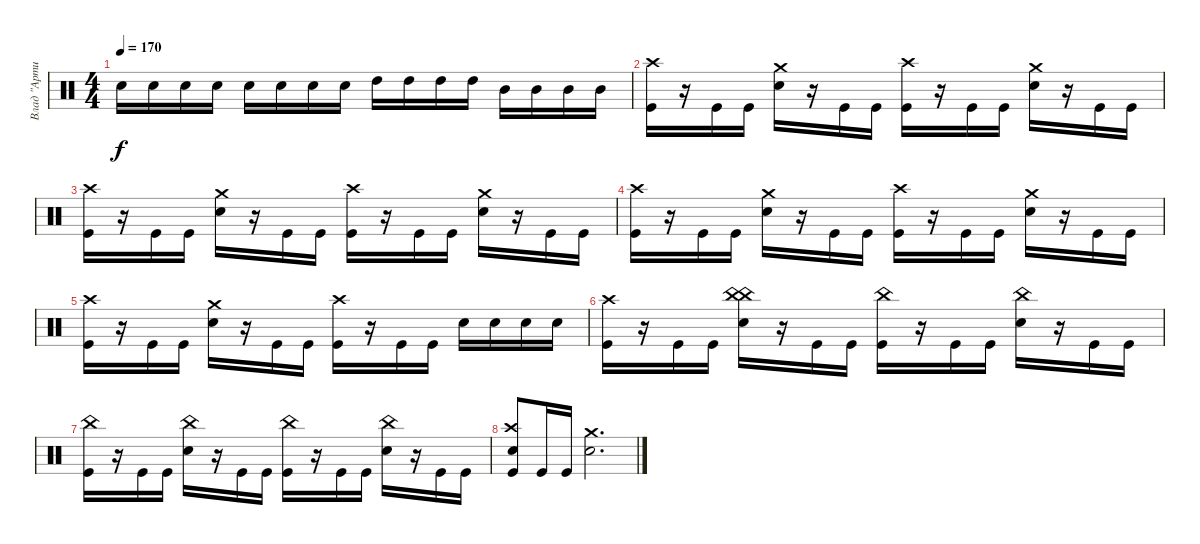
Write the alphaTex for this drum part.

\track ("Влад \"Артист\"" "Влад \"Арти") {instrument percussion}
\staff {score}
\articulation defaults
\ts (4 4)
\tempo 170
\clef neutral
\ks c "Snare (hit) 2".16{dy f} "Snare (hit) 2".16 "Snare (hit) 2".16 "Snare (hit) 2".16 "Snare (hit) 2".16 "Snare (hit) 2".16 "Snare (hit) 2".16 "Snare (hit) 2".16 "High Tom (hit)".16 "High Tom (hit)".16 "High Tom (hit)".16 "High Tom (hit)".16 "Mid Tom (hit)".16 "Mid Tom (hit)".16 "Mid Tom (hit)".16 "Mid Tom (hit)".16
|
("Crash high (hit)" "Kick (hit)").16 r.16 "Kick (hit)".16 "Kick (hit)".16 ("Crash medium (hit)" "Snare (hit) 2").16 r.16 "Kick (hit)".16 "Kick (hit)".16 ("Kick (hit)" "Crash high (hit)").16 r.16 "Kick (hit)".16 "Kick (hit)".16 ("Snare (hit) 2" "Crash medium (hit)").16 r.16 "Kick (hit)".16 "Kick (hit)".16 |
("Crash high (hit)" "Kick (hit)").16 r.16 "Kick (hit)".16 "Kick (hit)".16 ("Crash medium (hit)" "Snare (hit) 2").16 r.16 "Kick (hit)".16 "Kick (hit)".16 ("Kick (hit)" "Crash high (hit)").16 r.16 "Kick (hit)".16 "Kick (hit)".16 ("Snare (hit) 2" "Crash medium (hit)").16 r.16 "Kick (hit)".16 "Kick (hit)".16 |
("Crash high (hit)" "Kick (hit)").16 r.16 "Kick (hit)".16 "Kick (hit)".16 ("Crash medium (hit)" "Snare (hit) 2").16 r.16 "Kick (hit)".16 "Kick (hit)".16 ("Kick (hit)" "Crash high (hit)").16 r.16 "Kick (hit)".16 "Kick (hit)".16 ("Snare (hit) 2" "Crash medium (hit)").16 r.16 "Kick (hit)".16 "Kick (hit)".16 |
("Crash high (hit)" "Kick (hit)").16 r.16 "Kick (hit)".16 "Kick (hit)".16 ("Crash medium (hit)" "Snare (hit) 2").16 r.16 "Kick (hit)".16 "Kick (hit)".16 ("Kick (hit)" "Crash high (hit)").16 r.16 "Kick (hit)".16 "Kick (hit)".16 "Snare (hit) 2".16 "Snare (hit) 2".16 "Snare (hit) 2".16 "Snare (hit) 2".16 |
("Crash high (hit)" "Kick (hit)").16 r.16 "Kick (hit)".16 "Kick (hit)".16 ("China (hit)" "China (hit)" "Snare (hit) 2").16 r.16 "Kick (hit)".16 "Kick (hit)".16 ("China (hit)" "Kick (hit)").16 r.16 "Kick (hit)".16 "Kick (hit)".16 ("China (hit)" "Snare (hit) 2").16 r.16 "Kick (hit)".16 "Kick (hit)".16 |
("China (hit)" "Kick (hit)").16 r.16 "Kick (hit)".16 "Kick (hit)".16 ("China (hit)" "Snare (hit) 2").16 r.16 "Kick (hit)".16 "Kick (hit)".16 ("China (hit)" "Kick (hit)").16 r.16 "Kick (hit)".16 "Kick (hit)".16 ("China (hit)" "Snare (hit) 2").16 r.16 "Kick (hit)".16 "Kick (hit)".16 |
("Snare (hit) 2" "Crash high (hit)" "Kick (hit)").8 "Kick (hit)".16 "Kick (hit)".16 ("Snare (hit) 2" "Crash medium (hit)").2{d}
